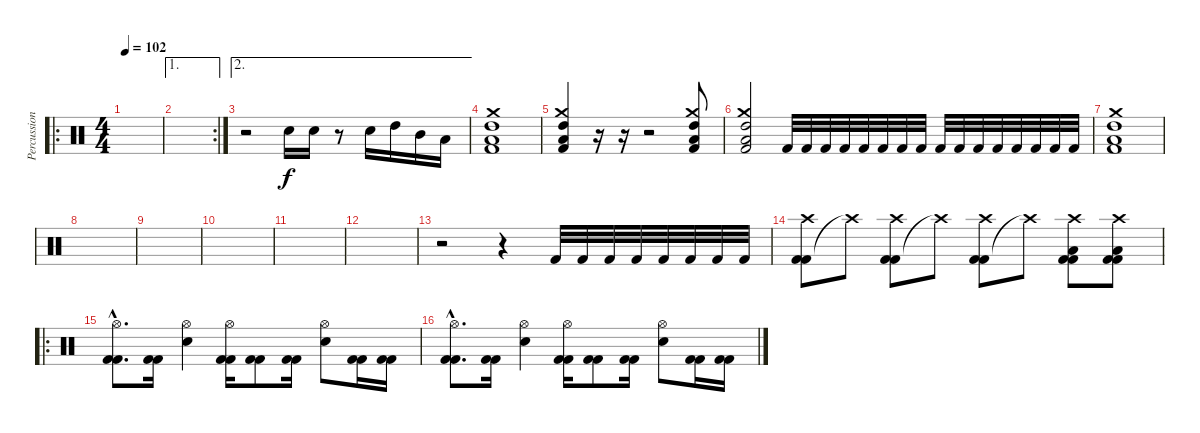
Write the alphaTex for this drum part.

\track ("Percussion" "Percussion") {instrument percussion}
\staff {score}
\articulation defaults
\ro
\ts (4 4)
\tempo 102
\clef neutral
\ks c
|
\ae 1
\rc 2
|
\ae 2
r.2 "Snare (hit) 2".16 "Snare (hit) 2".16 r.8 "Snare (hit) 2".16 "High Tom (hit)".16 "Mid Tom (hit)".16 "Low Tom (hit)".16 |
("High Tom (hit)" "Low Tom (hit)" "Crash medium (hit)" "Kick (hit) 2").1 |
("High Tom (hit)" "Low Tom (hit)" "Crash medium (hit)" "Kick (hit) 2").4 r.16 r.16 r.2 ("High Tom (hit)" "Low Tom (hit)" "Crash medium (hit)" "Kick (hit) 2").8 |
("High Tom (hit)" "Low Tom (hit)" "Crash medium (hit)" "Kick (hit) 2").2 "Kick (hit) 2".32 "Kick (hit) 2".32 "Kick (hit) 2".32 "Kick (hit) 2".32 "Kick (hit) 2".32 "Kick (hit) 2".32 "Kick (hit) 2".32 "Kick (hit) 2".32 "Kick (hit) 2".32 "Kick (hit) 2".32 "Kick (hit) 2".32 "Kick (hit) 2".32 "Kick (hit) 2".32 "Kick (hit) 2".32 "Kick (hit) 2".32 "Kick (hit) 2".32 |
("High Tom (hit)" "Low Tom (hit)" "Crash medium (hit)" "Kick (hit) 2").1 |
|
|
|
|
|
r.2 r.4 "Kick (hit) 2".32 "Kick (hit) 2".32 "Kick (hit) 2".32 "Kick (hit) 2".32 "Kick (hit) 2".32 "Kick (hit) 2".32 "Kick (hit) 2".32 "Kick (hit) 2".32 |
("Kick (hit) 2" "Crash high (hit)" "Kick (hit) 2").8 "Crash high (hit)"{t}.8 ("Kick (hit) 2" "Crash high (hit)" "Kick (hit) 2").8 "Crash high (hit)"{t}.8 ("Kick (hit) 2" "Crash high (hit)" "Kick (hit) 2").8 "Crash high (hit)"{t}.8 ("Kick (hit) 2" "Crash high (hit)" "Low Tom (hit)" "Kick (hit) 2").8 ("Kick (hit) 2" "Crash high (hit)" "Low Tom (hit)" "Kick (hit) 2").8 |
\ro
("Kick (hit) 2"{hac} "Hi-Hat (open)"{hac} "Kick (hit) 2"{hac}).8{d} ("Kick (hit) 2" "Kick (hit) 2").16 ("Snare (hit) 2" "Hi-Hat (open)").4 ("Kick (hit) 2" "Hi-Hat (open)" "Kick (hit) 2").16 ("Kick (hit) 2" "Kick (hit) 2").8 ("Kick (hit) 2" "Kick (hit) 2").16 ("Snare (hit) 2" "Hi-Hat (open)").8 ("Kick (hit) 2" "Kick (hit) 2").16 ("Kick (hit) 2" "Kick (hit) 2").16 |
("Kick (hit) 2"{hac} "Hi-Hat (open)"{hac} "Kick (hit) 2"{hac}).8{d} ("Kick (hit) 2" "Kick (hit) 2").16 ("Snare (hit) 2" "Hi-Hat (open)").4 ("Kick (hit) 2" "Hi-Hat (open)" "Kick (hit) 2").16 ("Kick (hit) 2" "Kick (hit) 2").8 ("Kick (hit) 2" "Kick (hit) 2").16 ("Snare (hit) 2" "Hi-Hat (open)").8 ("Kick (hit) 2" "Kick (hit) 2").16 ("Kick (hit) 2" "Kick (hit) 2").16
